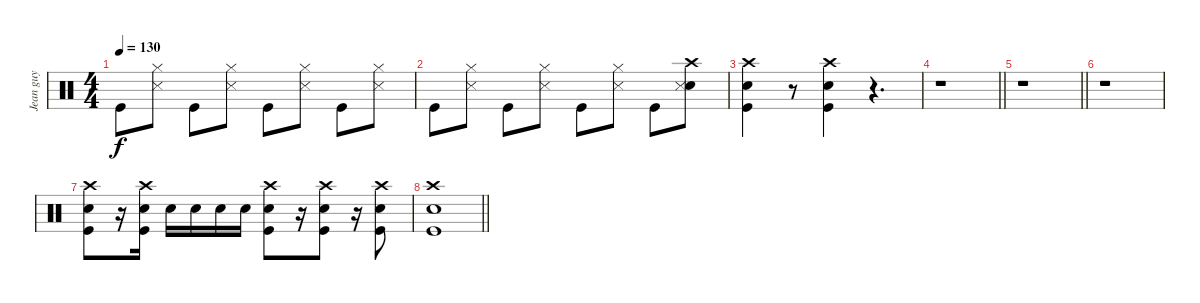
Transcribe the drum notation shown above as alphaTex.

\track ("Jean guy" "Jean guy") {instrument percussion}
\staff {score}
\articulation defaults
\ts (4 4)
\tempo 130
\clef neutral
\ks c "Kick (hit)".8{dy f}
("Hi-Hat (closed)" "Snare (side stick) 3").8 "Kick (hit)".8 ("Hi-Hat (closed)" "Snare (side stick) 3").8 "Kick (hit)".8 ("Hi-Hat (closed)" "Snare (side stick) 3").8 "Kick (hit)".8 ("Hi-Hat (closed)" "Snare (side stick) 3").8 |
"Kick (hit)".8 ("Hi-Hat (closed)" "Snare (side stick) 3").8 "Kick (hit)".8 ("Hi-Hat (closed)" "Snare (side stick) 3").8 "Kick (hit)".8 ("Hi-Hat (closed)" "Snare (side stick) 3").8 "Kick (hit)".8 ("Electric Snare (hit)" "Crash high (hit)" "Snare (side stick) 3").8 |
("Crash high (hit)" "Electric Snare (hit)" "Kick (hit)").4 r.8 ("Crash high (hit)" "Electric Snare (hit)" "Kick (hit)").4 r.4{d} |
\barLineRight lightlight
r.1 |
\barLineRight lightlight
r.1 |
r.1 |
("Crash high (hit)" "Electric Snare (hit)" "Kick (hit)").8 r.16 ("Crash high (hit)" "Electric Snare (hit)" "Kick (hit)").16 "Electric Snare (hit)".16 "Electric Snare (hit)".16 "Electric Snare (hit)".16 "Electric Snare (hit)".16 ("Crash high (hit)" "Electric Snare (hit)" "Kick (hit)").8 r.16 ("Crash high (hit)" "Electric Snare (hit)" "Kick (hit)").8 r.16 ("Crash high (hit)" "Electric Snare (hit)" "Kick (hit)").8 |
\barLineRight lightlight
("Kick (hit)" "Crash high (hit)" "Electric Snare (hit)").1
